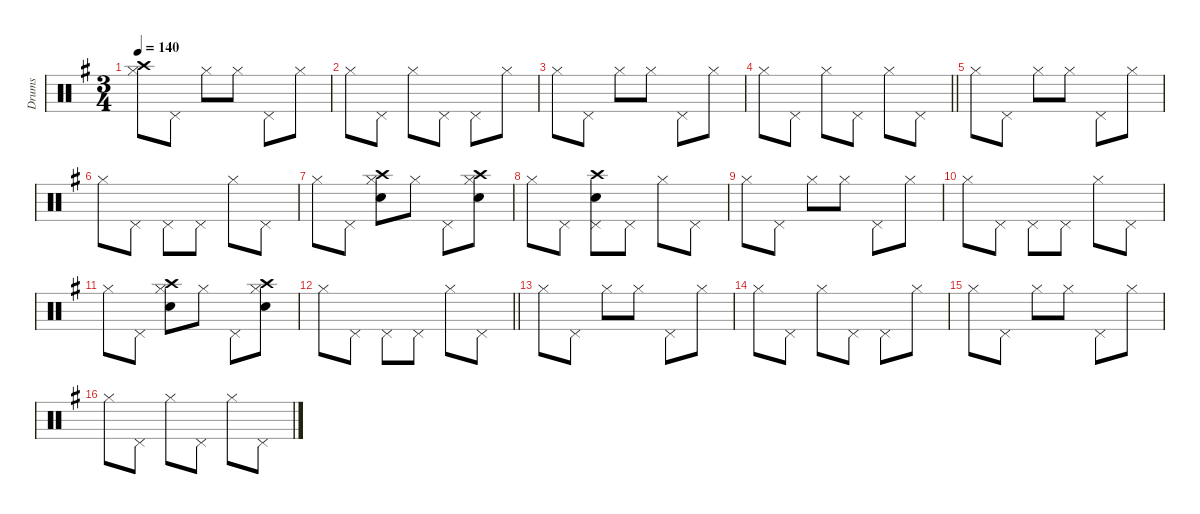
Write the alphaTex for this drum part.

\defaultSystemsLayout 8
\hideDynamics
\bracketExtendMode groupsimilarinstruments
\firstSystemTrackNameMode fullname
\otherSystemsTrackNameOrientation horizontal
\track ("Drums" "drm.") {defaultSystemsLayout 4 instrument percussion}
\staff {score}
\articulation defaults
\ts (3 4)
\tempo 140
\clef neutral
\ks g
("Hi-Hat (closed)"{acc forcenatural} "Crash high (hit)"{acc forcenatural}).8{dy mp beam Down} "Pedal Hi-Hat (hit)"{acc forcenatural}.8{beam Down} "Hi-Hat (closed)"{acc forcenatural}.8{beam Down} "Hi-Hat (closed)"{acc forcenatural}.8{beam Down} "Pedal Hi-Hat (hit)"{acc forcenatural}.8{beam Down} "Hi-Hat (closed)"{acc forcenatural}.8{beam Down} |
"Hi-Hat (closed)"{acc forcenatural}.8{beam Down} "Pedal Hi-Hat (hit)"{acc forcenatural}.8{beam Down} "Hi-Hat (closed)"{acc forcenatural}.8{beam Down} "Pedal Hi-Hat (hit)"{acc forcenatural}.8{beam Down} "Pedal Hi-Hat (hit)"{acc forcenatural}.8{beam Down} "Hi-Hat (closed)"{acc forcenatural}.8{beam Down} |
"Hi-Hat (closed)"{acc forcenatural}.8{beam Down} "Pedal Hi-Hat (hit)"{acc forcenatural}.8{beam Down} "Hi-Hat (closed)"{acc forcenatural}.8{beam Down} "Hi-Hat (closed)"{acc forcenatural}.8{beam Down} "Pedal Hi-Hat (hit)"{acc forcenatural}.8{beam Down} "Hi-Hat (closed)"{acc forcenatural}.8{beam Down} |
\barLineRight lightlight "Hi-Hat (closed)"{acc forcenatural}.8{beam Down} "Pedal Hi-Hat (hit)"{acc forcenatural}.8{beam Down} "Hi-Hat (closed)"{acc forcenatural}.8{beam Down} "Pedal Hi-Hat (hit)"{acc forcenatural}.8{beam Down} "Hi-Hat (closed)"{acc forcenatural}.8{beam Down} "Pedal Hi-Hat (hit)"{acc forcenatural}.8{beam Down}
|
"Hi-Hat (closed)"{acc forcenatural}.8{beam Down} "Pedal Hi-Hat (hit)"{acc forcenatural}.8{beam Down} "Hi-Hat (closed)"{acc forcenatural}.8{beam Down} "Hi-Hat (closed)"{acc forcenatural}.8{beam Down} "Pedal Hi-Hat (hit)"{acc forcenatural}.8{beam Down} "Hi-Hat (closed)"{acc forcenatural}.8{beam Down} |
"Hi-Hat (closed)"{acc forcenatural}.8{beam Down} "Pedal Hi-Hat (hit)"{acc forcenatural}.8{beam Down} "Pedal Hi-Hat (hit)"{acc forcenatural}.8{beam Down} "Pedal Hi-Hat (hit)"{acc forcenatural}.8{beam Down} "Hi-Hat (closed)"{acc forcenatural}.8{beam Down} "Pedal Hi-Hat (hit)"{acc forcenatural}.8{beam Down} |
"Hi-Hat (closed)"{acc forcenatural}.8{beam Down} "Pedal Hi-Hat (hit)"{acc forcenatural}.8{beam Down} ("Hi-Hat (closed)"{acc forcenatural} "Snare (hit) 2"{acc forcenatural} "Crash high (hit)"{acc forcenatural}).8{beam Down} "Hi-Hat (closed)"{acc forcenatural}.8{beam Down} "Pedal Hi-Hat (hit)"{acc forcenatural}.8{beam Down} ("Hi-Hat (closed)"{acc forcenatural} "Snare (hit) 2"{acc forcenatural} "Crash high (hit)"{acc forcenatural}).8{beam Down} |
"Hi-Hat (closed)"{acc forcenatural}.8{beam Down} "Pedal Hi-Hat (hit)"{acc forcenatural}.8{beam Down} ("Pedal Hi-Hat (hit)"{acc forcenatural} "Snare (hit) 2"{acc forcenatural} "Crash high (hit)"{acc forcenatural}).8{beam Down} "Pedal Hi-Hat (hit)"{acc forcenatural}.8{beam Down} "Hi-Hat (closed)"{acc forcenatural}.8{beam Down} "Pedal Hi-Hat (hit)"{acc forcenatural}.8{beam Down} |
"Hi-Hat (closed)"{acc forcenatural}.8{beam Down} "Pedal Hi-Hat (hit)"{acc forcenatural}.8{beam Down} "Hi-Hat (closed)"{acc forcenatural}.8{beam Down} "Hi-Hat (closed)"{acc forcenatural}.8{beam Down} "Pedal Hi-Hat (hit)"{acc forcenatural}.8{beam Down} "Hi-Hat (closed)"{acc forcenatural}.8{beam Down} |
"Hi-Hat (closed)"{acc forcenatural}.8{beam Down} "Pedal Hi-Hat (hit)"{acc forcenatural}.8{beam Down} "Pedal Hi-Hat (hit)"{acc forcenatural}.8{beam Down} "Pedal Hi-Hat (hit)"{acc forcenatural}.8{beam Down} "Hi-Hat (closed)"{acc forcenatural}.8{beam Down} "Pedal Hi-Hat (hit)"{acc forcenatural}.8{beam Down} |
"Hi-Hat (closed)"{acc forcenatural}.8{beam Down} "Pedal Hi-Hat (hit)"{acc forcenatural}.8{beam Down} ("Hi-Hat (closed)"{acc forcenatural} "Snare (hit) 2"{acc forcenatural} "Crash high (hit)"{acc forcenatural}).8{beam Down} "Hi-Hat (closed)"{acc forcenatural}.8{beam Down} "Pedal Hi-Hat (hit)"{acc forcenatural}.8{beam Down} ("Hi-Hat (closed)"{acc forcenatural} "Snare (hit) 2"{acc forcenatural} "Crash high (hit)"{acc forcenatural}).8{beam Down} |
\barLineRight lightlight "Hi-Hat (closed)"{acc forcenatural}.8{beam Down} "Pedal Hi-Hat (hit)"{acc forcenatural}.8{beam Down} "Pedal Hi-Hat (hit)"{acc forcenatural}.8{beam Down} "Pedal Hi-Hat (hit)"{acc forcenatural}.8{beam Down} "Hi-Hat (closed)"{acc forcenatural}.8{beam Down} "Pedal Hi-Hat (hit)"{acc forcenatural}.8{beam Down}
|
"Hi-Hat (closed)"{acc forcenatural}.8{beam Down} "Pedal Hi-Hat (hit)"{acc forcenatural}.8{beam Down} "Hi-Hat (closed)"{acc forcenatural}.8{beam Down} "Hi-Hat (closed)"{acc forcenatural}.8{beam Down} "Pedal Hi-Hat (hit)"{acc forcenatural}.8{beam Down} "Hi-Hat (closed)"{acc forcenatural}.8{beam Down} |
"Hi-Hat (closed)"{acc forcenatural}.8{beam Down} "Pedal Hi-Hat (hit)"{acc forcenatural}.8{beam Down} "Hi-Hat (closed)"{acc forcenatural}.8{beam Down} "Pedal Hi-Hat (hit)"{acc forcenatural}.8{beam Down} "Pedal Hi-Hat (hit)"{acc forcenatural}.8{beam Down} "Hi-Hat (closed)"{acc forcenatural}.8{beam Down} |
"Hi-Hat (closed)"{acc forcenatural}.8{beam Down} "Pedal Hi-Hat (hit)"{acc forcenatural}.8{beam Down} "Hi-Hat (closed)"{acc forcenatural}.8{beam Down} "Hi-Hat (closed)"{acc forcenatural}.8{beam Down} "Pedal Hi-Hat (hit)"{acc forcenatural}.8{beam Down} "Hi-Hat (closed)"{acc forcenatural}.8{beam Down} |
"Hi-Hat (closed)"{acc forcenatural}.8{beam Down} "Pedal Hi-Hat (hit)"{acc forcenatural}.8{beam Down} "Hi-Hat (closed)"{acc forcenatural}.8{beam Down} "Pedal Hi-Hat (hit)"{acc forcenatural}.8{beam Down} "Hi-Hat (closed)"{acc forcenatural}.8{beam Down} "Pedal Hi-Hat (hit)"{acc forcenatural}.8{beam Down}
